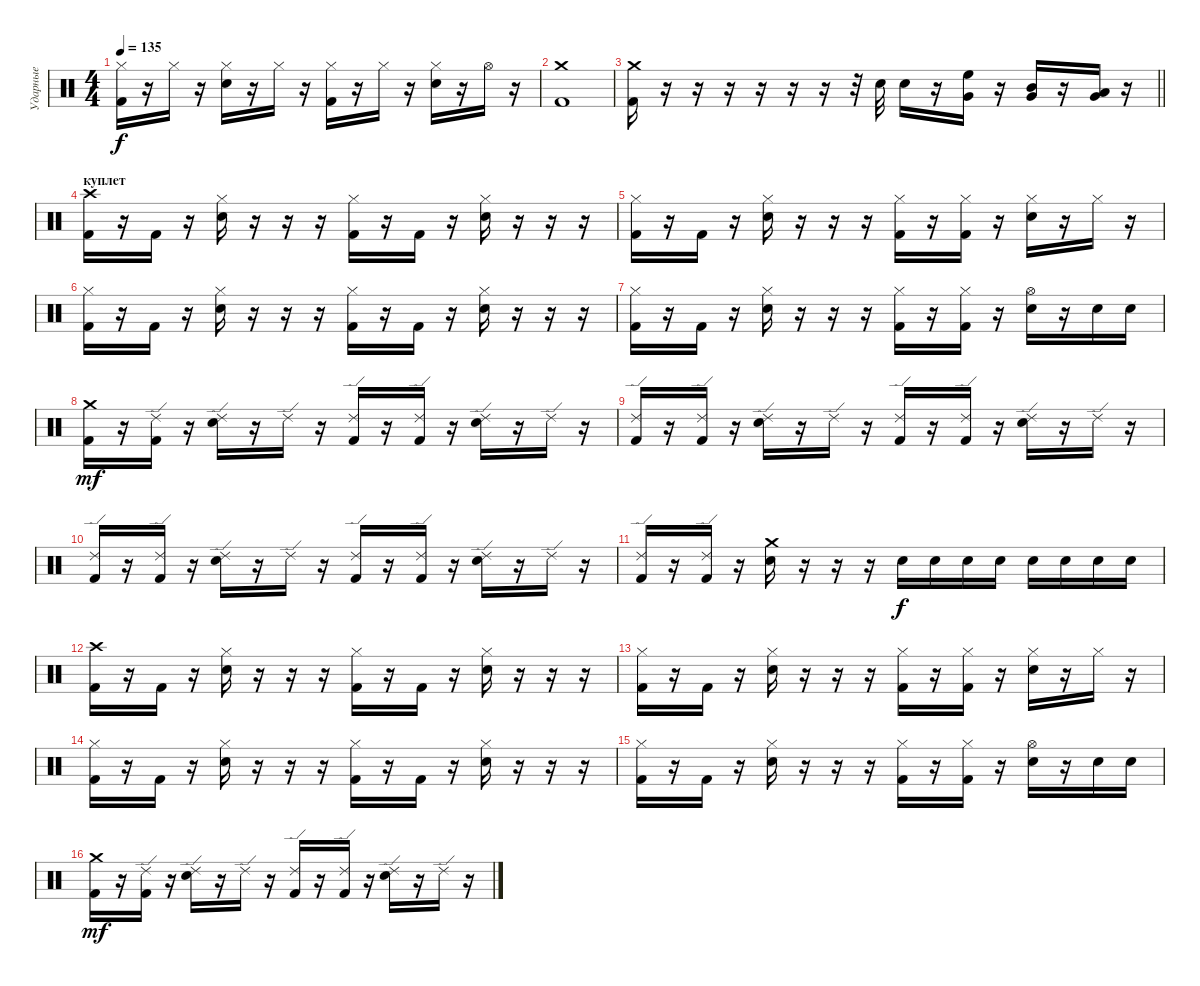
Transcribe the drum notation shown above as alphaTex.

\track ("Ударные" "Ударные") {instrument percussion}
\staff {score}
\articulation defaults
\ts (4 4)
\tempo 135
\clef neutral
\ks c
("Hi-Hat (closed)" "Kick (hit) 2").16{dy f} r.16 "Hi-Hat (closed)".16 r.16 ("Hi-Hat (closed)" "Electric Snare (hit)").16 r.16 "Hi-Hat (closed)".16 r.16 ("Hi-Hat (closed)" "Kick (hit) 2").16 r.16 "Hi-Hat (closed)".16 r.16 ("Hi-Hat (closed)" "Electric Snare (hit)").16 r.16 "Hi-Hat (open)".16 r.16 |
("Crash medium (hit)" "Kick (hit) 2").1 |
\barLineRight lightlight
("Crash medium (hit)" "Kick (hit) 2").16 r.16 r.16 r.16 r.16 r.16 r.16 r.32 "Electric Snare (hit)".32 "Electric Snare (hit)".16 r.16 ("High Floor Tom (hit)" "Very Low Tom (hit)").16 r.16 ("Mid Tom (hit)" "Very Low Tom (hit)").16 r.16 ("Low Tom (hit)" "Very Low Tom (hit)").16 r.16 |
\section ("" "куплет")
("Crash high (hit)" "Kick (hit) 2").16 r.16 "Kick (hit) 2".16 r.16 ("Hi-Hat (closed)" "Electric Snare (hit)").16 r.16 r.16 r.16 ("Hi-Hat (closed)" "Kick (hit) 2").16 r.16 "Kick (hit) 2".16 r.16 ("Hi-Hat (closed)" "Electric Snare (hit)").16 r.16 r.16 r.16 |
("Hi-Hat (closed)" "Kick (hit) 2").16 r.16 "Kick (hit) 2".16 r.16 ("Hi-Hat (closed)" "Electric Snare (hit)").16 r.16 r.16 r.16 ("Hi-Hat (closed)" "Kick (hit) 2").16 r.16 ("Hi-Hat (closed)" "Kick (hit) 2").16 r.16 ("Hi-Hat (closed)" "Electric Snare (hit)").16 r.16 "Hi-Hat (closed)".16 r.16 |
("Hi-Hat (closed)" "Kick (hit) 2").16 r.16 "Kick (hit) 2".16 r.16 ("Hi-Hat (closed)" "Electric Snare (hit)").16 r.16 r.16 r.16 ("Hi-Hat (closed)" "Kick (hit) 2").16 r.16 "Kick (hit) 2".16 r.16 ("Hi-Hat (closed)" "Electric Snare (hit)").16 r.16 r.16 r.16 |
("Hi-Hat (closed)" "Kick (hit) 2").16 r.16 "Kick (hit) 2".16 r.16 ("Hi-Hat (closed)" "Electric Snare (hit)").16 r.16 r.16 r.16 ("Hi-Hat (closed)" "Kick (hit) 2").16 r.16 ("Hi-Hat (closed)" "Kick (hit) 2").16 r.16 ("Hi-Hat (open)" "Electric Snare (hit)").16 r.16 "Electric Snare (hit)".16 "Electric Snare (hit)".16 |
("Crash medium (hit)" "Kick (hit) 2").16{dy mf} r.16 ("Ride (edge) 2" "Kick (hit) 2").16 r.16 ("Ride (edge) 2" "Electric Snare (hit)").16 r.16 "Ride (edge) 2".16 r.16 ("Ride (edge) 2" "Kick (hit) 2").16 r.16 ("Ride (edge) 2" "Kick (hit) 2").16 r.16 ("Ride (edge) 2" "Electric Snare (hit)").16 r.16 "Ride (edge) 2".16 r.16 |
("Ride (edge) 2" "Kick (hit) 2").16 r.16 ("Ride (edge) 2" "Kick (hit) 2").16 r.16 ("Ride (edge) 2" "Electric Snare (hit)").16 r.16 "Ride (edge) 2".16 r.16 ("Ride (edge) 2" "Kick (hit) 2").16 r.16 ("Ride (edge) 2" "Kick (hit) 2").16 r.16 ("Ride (edge) 2" "Electric Snare (hit)").16 r.16 "Ride (edge) 2".16 r.16 |
("Ride (edge) 2" "Kick (hit) 2").16 r.16 ("Ride (edge) 2" "Kick (hit) 2").16 r.16 ("Ride (edge) 2" "Electric Snare (hit)").16 r.16 "Ride (edge) 2".16 r.16 ("Ride (edge) 2" "Kick (hit) 2").16 r.16 ("Ride (edge) 2" "Kick (hit) 2").16 r.16 ("Ride (edge) 2" "Electric Snare (hit)").16 r.16 "Ride (edge) 2".16 r.16 |
("Ride (edge) 2" "Kick (hit) 2").16 r.16 ("Ride (edge) 2" "Kick (hit) 2").16 r.16 ("Crash medium (hit)" "Electric Snare (hit)").16 r.16 r.16 r.16 "Electric Snare (hit)".16{dy f} "Electric Snare (hit)".16 "Electric Snare (hit)".16 "Electric Snare (hit)".16 "Electric Snare (hit)".16 "Electric Snare (hit)".16 "Electric Snare (hit)".16 "Electric Snare (hit)".16 |
("Crash high (hit)" "Kick (hit) 2").16 r.16 "Kick (hit) 2".16 r.16 ("Hi-Hat (closed)" "Electric Snare (hit)").16 r.16 r.16 r.16 ("Hi-Hat (closed)" "Kick (hit) 2").16 r.16 "Kick (hit) 2".16 r.16 ("Hi-Hat (closed)" "Electric Snare (hit)").16 r.16 r.16 r.16 |
("Hi-Hat (closed)" "Kick (hit) 2").16 r.16 "Kick (hit) 2".16 r.16 ("Hi-Hat (closed)" "Electric Snare (hit)").16 r.16 r.16 r.16 ("Hi-Hat (closed)" "Kick (hit) 2").16 r.16 ("Hi-Hat (closed)" "Kick (hit) 2").16 r.16 ("Hi-Hat (closed)" "Electric Snare (hit)").16 r.16 "Hi-Hat (closed)".16 r.16 |
("Hi-Hat (closed)" "Kick (hit) 2").16 r.16 "Kick (hit) 2".16 r.16 ("Hi-Hat (closed)" "Electric Snare (hit)").16 r.16 r.16 r.16 ("Hi-Hat (closed)" "Kick (hit) 2").16 r.16 "Kick (hit) 2".16 r.16 ("Hi-Hat (closed)" "Electric Snare (hit)").16 r.16 r.16 r.16 |
("Hi-Hat (closed)" "Kick (hit) 2").16 r.16 "Kick (hit) 2".16 r.16 ("Hi-Hat (closed)" "Electric Snare (hit)").16 r.16 r.16 r.16 ("Hi-Hat (closed)" "Kick (hit) 2").16 r.16 ("Hi-Hat (closed)" "Kick (hit) 2").16 r.16 ("Hi-Hat (open)" "Electric Snare (hit)").16 r.16 "Electric Snare (hit)".16 "Electric Snare (hit)".16 |
("Crash medium (hit)" "Kick (hit) 2").16{dy mf} r.16 ("Ride (edge) 2" "Kick (hit) 2").16 r.16 ("Ride (edge) 2" "Electric Snare (hit)").16 r.16 "Ride (edge) 2".16 r.16 ("Ride (edge) 2" "Kick (hit) 2").16 r.16 ("Ride (edge) 2" "Kick (hit) 2").16 r.16 ("Ride (edge) 2" "Electric Snare (hit)").16 r.16 "Ride (edge) 2".16 r.16
